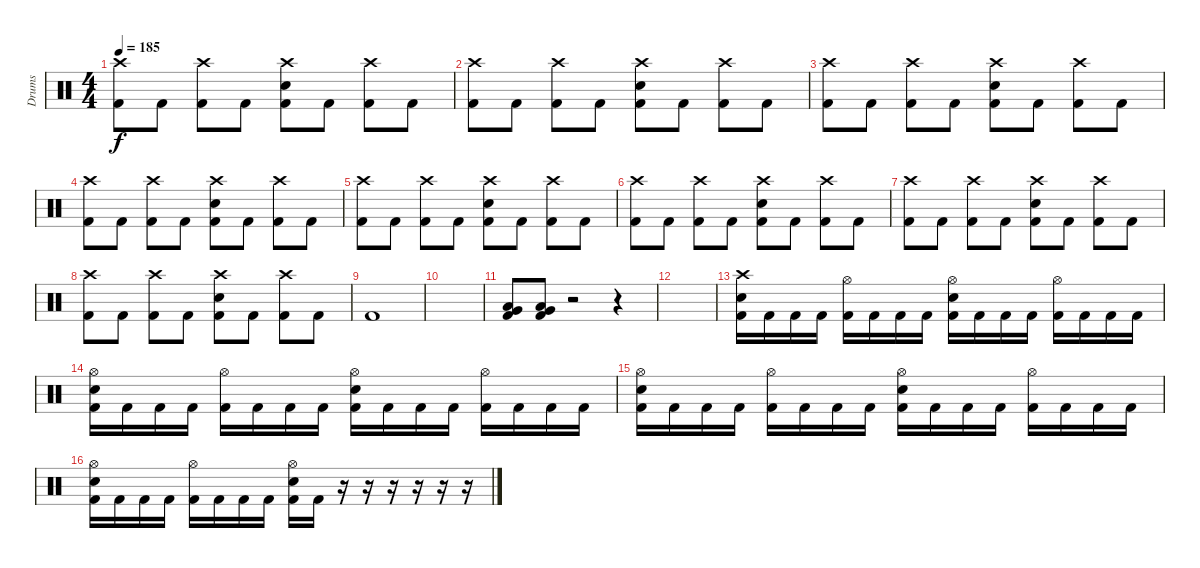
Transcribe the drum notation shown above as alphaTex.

\track ("Drums" "Drums") {instrument percussion}
\staff {score}
\articulation defaults
\ts (4 4)
\tempo 185
\clef neutral
\ks c
("Crash high (hit)" "Kick (hit) 2").8{dy f} "Kick (hit) 2".8 ("Crash high (hit)" "Kick (hit) 2").8 "Kick (hit) 2".8 ("Crash high (hit)" "Electric Snare (hit)" "Kick (hit) 2").8 "Kick (hit) 2".8 ("Crash high (hit)" "Kick (hit) 2").8 "Kick (hit) 2".8 |
("Crash high (hit)" "Kick (hit) 2").8 "Kick (hit) 2".8 ("Crash high (hit)" "Kick (hit) 2").8 "Kick (hit) 2".8 ("Crash high (hit)" "Electric Snare (hit)" "Kick (hit) 2").8 "Kick (hit) 2".8 ("Crash high (hit)" "Kick (hit) 2").8 "Kick (hit) 2".8 |
("Crash high (hit)" "Kick (hit) 2").8 "Kick (hit) 2".8 ("Crash high (hit)" "Kick (hit) 2").8 "Kick (hit) 2".8 ("Crash high (hit)" "Electric Snare (hit)" "Kick (hit) 2").8 "Kick (hit) 2".8 ("Crash high (hit)" "Kick (hit) 2").8 "Kick (hit) 2".8 |
("Crash high (hit)" "Kick (hit) 2").8 "Kick (hit) 2".8 ("Crash high (hit)" "Kick (hit) 2").8 "Kick (hit) 2".8 ("Crash high (hit)" "Electric Snare (hit)" "Kick (hit) 2").8 "Kick (hit) 2".8 ("Crash high (hit)" "Kick (hit) 2").8 "Kick (hit) 2".8 |
("Crash high (hit)" "Kick (hit) 2").8 "Kick (hit) 2".8 ("Crash high (hit)" "Kick (hit) 2").8 "Kick (hit) 2".8 ("Crash high (hit)" "Electric Snare (hit)" "Kick (hit) 2").8 "Kick (hit) 2".8 ("Crash high (hit)" "Kick (hit) 2").8 "Kick (hit) 2".8 |
("Crash high (hit)" "Kick (hit) 2").8 "Kick (hit) 2".8 ("Crash high (hit)" "Kick (hit) 2").8 "Kick (hit) 2".8 ("Crash high (hit)" "Electric Snare (hit)" "Kick (hit) 2").8 "Kick (hit) 2".8 ("Crash high (hit)" "Kick (hit) 2").8 "Kick (hit) 2".8 |
("Crash high (hit)" "Kick (hit) 2").8 "Kick (hit) 2".8 ("Crash high (hit)" "Kick (hit) 2").8 "Kick (hit) 2".8 ("Crash high (hit)" "Electric Snare (hit)" "Kick (hit) 2").8 "Kick (hit) 2".8 ("Crash high (hit)" "Kick (hit) 2").8 "Kick (hit) 2".8 |
("Crash high (hit)" "Kick (hit) 2").8 "Kick (hit) 2".8 ("Crash high (hit)" "Kick (hit) 2").8 "Kick (hit) 2".8 ("Crash high (hit)" "Electric Snare (hit)" "Kick (hit) 2").8 "Kick (hit) 2".8 ("Crash high (hit)" "Kick (hit) 2").8 "Kick (hit) 2".8 |
"Kick (hit) 2".1 |
|
("Very Low Tom (hit)" "Low Tom (hit)" "Kick (hit) 2").8 ("Very Low Tom (hit)" "Low Tom (hit)" "Kick (hit) 2").8 r.2 r.4 |
|
("Crash high (hit)" "Electric Snare (hit)" "Kick (hit) 2").16 "Kick (hit) 2".16 "Kick (hit) 2".16 "Kick (hit) 2".16 ("Hi-Hat (open)" "Kick (hit) 2").16 "Kick (hit) 2".16 "Kick (hit) 2".16 "Kick (hit) 2".16 ("Hi-Hat (open)" "Electric Snare (hit)" "Kick (hit) 2").16 "Kick (hit) 2".16 "Kick (hit) 2".16 "Kick (hit) 2".16 ("Hi-Hat (open)" "Kick (hit) 2").16 "Kick (hit) 2".16 "Kick (hit) 2".16 "Kick (hit) 2".16 |
("Hi-Hat (open)" "Electric Snare (hit)" "Kick (hit) 2").16 "Kick (hit) 2".16 "Kick (hit) 2".16 "Kick (hit) 2".16 ("Hi-Hat (open)" "Kick (hit) 2").16 "Kick (hit) 2".16 "Kick (hit) 2".16 "Kick (hit) 2".16 ("Hi-Hat (open)" "Electric Snare (hit)" "Kick (hit) 2").16 "Kick (hit) 2".16 "Kick (hit) 2".16 "Kick (hit) 2".16 ("Hi-Hat (open)" "Kick (hit) 2").16 "Kick (hit) 2".16 "Kick (hit) 2".16 "Kick (hit) 2".16 |
("Hi-Hat (open)" "Electric Snare (hit)" "Kick (hit) 2").16 "Kick (hit) 2".16 "Kick (hit) 2".16 "Kick (hit) 2".16 ("Hi-Hat (open)" "Kick (hit) 2").16 "Kick (hit) 2".16 "Kick (hit) 2".16 "Kick (hit) 2".16 ("Hi-Hat (open)" "Electric Snare (hit)" "Kick (hit) 2").16 "Kick (hit) 2".16 "Kick (hit) 2".16 "Kick (hit) 2".16 ("Hi-Hat (open)" "Kick (hit) 2").16 "Kick (hit) 2".16 "Kick (hit) 2".16 "Kick (hit) 2".16 |
("Hi-Hat (open)" "Electric Snare (hit)" "Kick (hit) 2").16 "Kick (hit) 2".16 "Kick (hit) 2".16 "Kick (hit) 2".16 ("Hi-Hat (open)" "Kick (hit) 2").16 "Kick (hit) 2".16 "Kick (hit) 2".16 "Kick (hit) 2".16 ("Hi-Hat (open)" "Electric Snare (hit)" "Kick (hit) 2").16 "Kick (hit) 2".16 r.16 r.16 r.16 r.16 r.16 r.16
